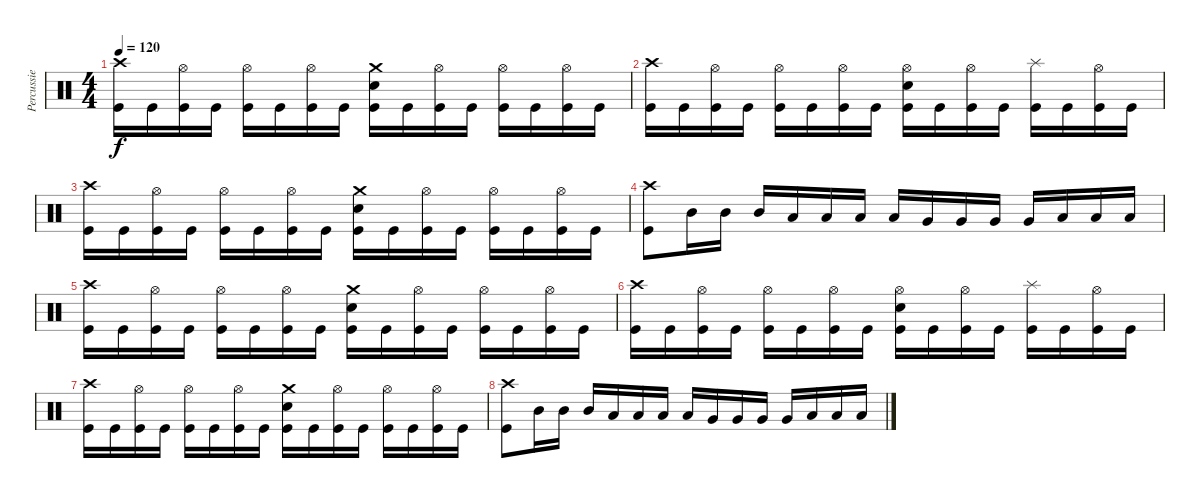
\track ("Percussie" "Percussie") {instrument percussion}
\staff {score}
\articulation defaults
\ts (4 4)
\tempo 120
\clef neutral
\ks c
("Crash high (hit)" "Kick (hit)").16{dy f} "Kick (hit)".16 ("Hi-Hat (open)" "Kick (hit)").16 "Kick (hit)".16 ("Hi-Hat (open)" "Kick (hit)").16 "Kick (hit)".16 ("Hi-Hat (open)" "Kick (hit)").16 "Kick (hit)".16 ("Crash medium (hit)" "Electric Snare (hit)" "Kick (hit)").16 "Kick (hit)".16 ("Hi-Hat (open)" "Kick (hit)").16 "Kick (hit)".16 ("Hi-Hat (open)" "Kick (hit)").16 "Kick (hit)".16 ("Hi-Hat (open)" "Kick (hit)").16 "Kick (hit)".16 |
("Crash high (hit)" "Kick (hit)").16 "Kick (hit)".16 ("Hi-Hat (open)" "Kick (hit)").16 "Kick (hit)".16 ("Hi-Hat (open)" "Kick (hit)").16 "Kick (hit)".16 ("Hi-Hat (open)" "Kick (hit)").16 "Kick (hit)".16 ("Hi-Hat (open)" "Electric Snare (hit)" "Kick (hit)").16 "Kick (hit)".16 ("Hi-Hat (open)" "Kick (hit)").16 "Kick (hit)".16 ("Splash (hit)" "Kick (hit)").16 "Kick (hit)".16 ("Hi-Hat (open)" "Kick (hit)").16 "Kick (hit)".16 |
("Crash high (hit)" "Kick (hit)").16 "Kick (hit)".16 ("Hi-Hat (open)" "Kick (hit)").16 "Kick (hit)".16 ("Hi-Hat (open)" "Kick (hit)").16 "Kick (hit)".16 ("Hi-Hat (open)" "Kick (hit)").16 "Kick (hit)".16 ("Crash medium (hit)" "Electric Snare (hit)" "Kick (hit)").16 "Kick (hit)".16 ("Hi-Hat (open)" "Kick (hit)").16 "Kick (hit)".16 ("Hi-Hat (open)" "Kick (hit)").16 "Kick (hit)".16 ("Hi-Hat (open)" "Kick (hit)").16 "Kick (hit)".16 |
("Crash high (hit)" "Kick (hit)").8 "Mid Tom (hit)".16 "Mid Tom (hit)".16 "Mid Tom (hit)".16 "Low Tom (hit)".16 "Low Tom (hit)".16 "Low Tom (hit)".16 "Low Tom (hit)".16 "Very Low Tom (hit)".16 "Very Low Tom (hit)".16 "Very Low Tom (hit)".16 "Very Low Tom (hit)".16 "Low Floor Tom (hit)".16 "Low Floor Tom (hit)".16 "Low Floor Tom (hit)".16 |
("Crash high (hit)" "Kick (hit)").16 "Kick (hit)".16 ("Hi-Hat (open)" "Kick (hit)").16 "Kick (hit)".16 ("Hi-Hat (open)" "Kick (hit)").16 "Kick (hit)".16 ("Hi-Hat (open)" "Kick (hit)").16 "Kick (hit)".16 ("Crash medium (hit)" "Electric Snare (hit)" "Kick (hit)").16 "Kick (hit)".16 ("Hi-Hat (open)" "Kick (hit)").16 "Kick (hit)".16 ("Hi-Hat (open)" "Kick (hit)").16 "Kick (hit)".16 ("Hi-Hat (open)" "Kick (hit)").16 "Kick (hit)".16 |
("Crash high (hit)" "Kick (hit)").16 "Kick (hit)".16 ("Hi-Hat (open)" "Kick (hit)").16 "Kick (hit)".16 ("Hi-Hat (open)" "Kick (hit)").16 "Kick (hit)".16 ("Hi-Hat (open)" "Kick (hit)").16 "Kick (hit)".16 ("Hi-Hat (open)" "Electric Snare (hit)" "Kick (hit)").16 "Kick (hit)".16 ("Hi-Hat (open)" "Kick (hit)").16 "Kick (hit)".16 ("Splash (hit)" "Kick (hit)").16 "Kick (hit)".16 ("Hi-Hat (open)" "Kick (hit)").16 "Kick (hit)".16 |
("Crash high (hit)" "Kick (hit)").16 "Kick (hit)".16 ("Hi-Hat (open)" "Kick (hit)").16 "Kick (hit)".16 ("Hi-Hat (open)" "Kick (hit)").16 "Kick (hit)".16 ("Hi-Hat (open)" "Kick (hit)").16 "Kick (hit)".16 ("Crash medium (hit)" "Electric Snare (hit)" "Kick (hit)").16 "Kick (hit)".16 ("Hi-Hat (open)" "Kick (hit)").16 "Kick (hit)".16 ("Hi-Hat (open)" "Kick (hit)").16 "Kick (hit)".16 ("Hi-Hat (open)" "Kick (hit)").16 "Kick (hit)".16 |
("Crash high (hit)" "Kick (hit)").8 "Mid Tom (hit)".16 "Mid Tom (hit)".16 "Mid Tom (hit)".16 "Low Tom (hit)".16 "Low Tom (hit)".16 "Low Tom (hit)".16 "Low Tom (hit)".16 "Very Low Tom (hit)".16 "Very Low Tom (hit)".16 "Very Low Tom (hit)".16 "Very Low Tom (hit)".16 "Low Floor Tom (hit)".16 "Low Floor Tom (hit)".16 "Low Floor Tom (hit)".16
